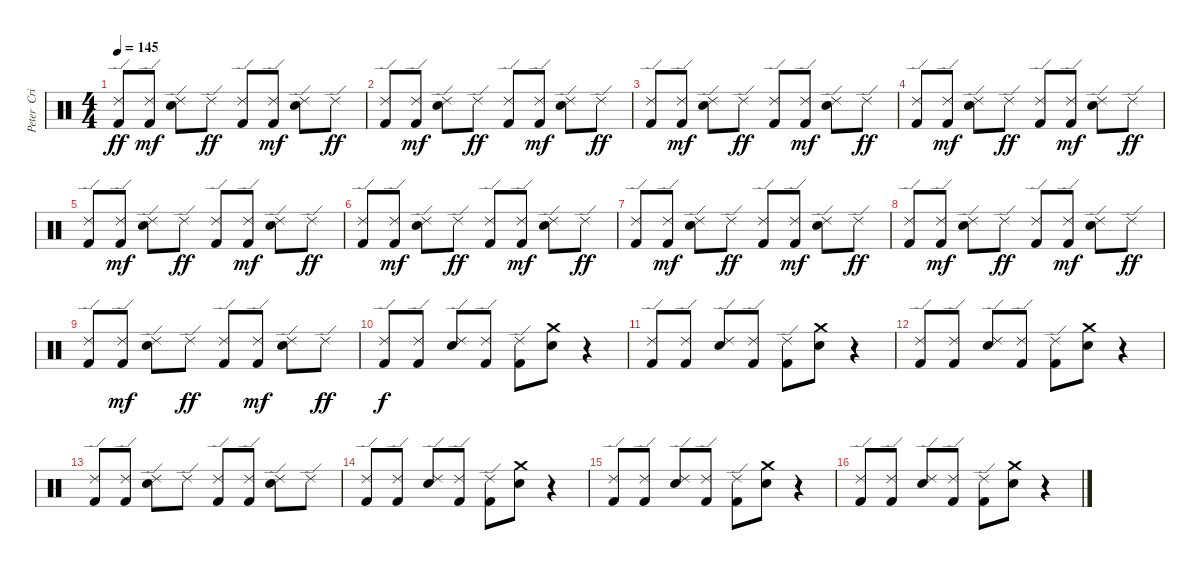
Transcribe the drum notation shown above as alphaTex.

\track ("Peter  Criss [Drums]" "Peter  Cri") {instrument percussion}
\staff {score}
\articulation defaults
\ts (4 4)
\tempo 145
\clef neutral
\ks c
("Ride (edge) 2" "Kick (hit) 2").8{dy ff} ("Ride (edge) 2" "Kick (hit) 2").8{dy mf} ("Ride (edge) 2" "Electric Snare (hit)").8 "Ride (edge) 2".8{dy ff} ("Ride (edge) 2" "Kick (hit) 2").8 ("Ride (edge) 2" "Kick (hit) 2").8{dy mf} ("Ride (edge) 2" "Electric Snare (hit)").8 "Ride (edge) 2".8{dy ff} |
("Ride (edge) 2" "Kick (hit) 2").8 ("Ride (edge) 2" "Kick (hit) 2").8{dy mf} ("Ride (edge) 2" "Electric Snare (hit)").8 "Ride (edge) 2".8{dy ff} ("Ride (edge) 2" "Kick (hit) 2").8 ("Ride (edge) 2" "Kick (hit) 2").8{dy mf} ("Ride (edge) 2" "Electric Snare (hit)").8 "Ride (edge) 2".8{dy ff} |
("Ride (edge) 2" "Kick (hit) 2").8 ("Ride (edge) 2" "Kick (hit) 2").8{dy mf} ("Ride (edge) 2" "Electric Snare (hit)").8 "Ride (edge) 2".8{dy ff} ("Ride (edge) 2" "Kick (hit) 2").8 ("Ride (edge) 2" "Kick (hit) 2").8{dy mf} ("Ride (edge) 2" "Electric Snare (hit)").8 "Ride (edge) 2".8{dy ff} |
("Ride (edge) 2" "Kick (hit) 2").8 ("Ride (edge) 2" "Kick (hit) 2").8{dy mf} ("Ride (edge) 2" "Electric Snare (hit)").8 "Ride (edge) 2".8{dy ff} ("Ride (edge) 2" "Kick (hit) 2").8 ("Ride (edge) 2" "Kick (hit) 2").8{dy mf} ("Ride (edge) 2" "Electric Snare (hit)").8 "Ride (edge) 2".8{dy ff} |
("Ride (edge) 2" "Kick (hit) 2").8 ("Ride (edge) 2" "Kick (hit) 2").8{dy mf} ("Ride (edge) 2" "Electric Snare (hit)").8 "Ride (edge) 2".8{dy ff} ("Ride (edge) 2" "Kick (hit) 2").8 ("Ride (edge) 2" "Kick (hit) 2").8{dy mf} ("Ride (edge) 2" "Electric Snare (hit)").8 "Ride (edge) 2".8{dy ff} |
("Ride (edge) 2" "Kick (hit) 2").8 ("Ride (edge) 2" "Kick (hit) 2").8{dy mf} ("Ride (edge) 2" "Electric Snare (hit)").8 "Ride (edge) 2".8{dy ff} ("Ride (edge) 2" "Kick (hit) 2").8 ("Ride (edge) 2" "Kick (hit) 2").8{dy mf} ("Ride (edge) 2" "Electric Snare (hit)").8 "Ride (edge) 2".8{dy ff} |
("Ride (edge) 2" "Kick (hit) 2").8 ("Ride (edge) 2" "Kick (hit) 2").8{dy mf} ("Ride (edge) 2" "Electric Snare (hit)").8 "Ride (edge) 2".8{dy ff} ("Ride (edge) 2" "Kick (hit) 2").8 ("Ride (edge) 2" "Kick (hit) 2").8{dy mf} ("Ride (edge) 2" "Electric Snare (hit)").8 "Ride (edge) 2".8{dy ff} |
("Ride (edge) 2" "Kick (hit) 2").8 ("Ride (edge) 2" "Kick (hit) 2").8{dy mf} ("Ride (edge) 2" "Electric Snare (hit)").8 "Ride (edge) 2".8{dy ff} ("Ride (edge) 2" "Kick (hit) 2").8 ("Ride (edge) 2" "Kick (hit) 2").8{dy mf} ("Ride (edge) 2" "Electric Snare (hit)").8 "Ride (edge) 2".8{dy ff} |
("Ride (edge) 2" "Kick (hit) 2").8 ("Ride (edge) 2" "Kick (hit) 2").8{dy mf} ("Ride (edge) 2" "Electric Snare (hit)").8 "Ride (edge) 2".8{dy ff} ("Ride (edge) 2" "Kick (hit) 2").8 ("Ride (edge) 2" "Kick (hit) 2").8{dy mf} ("Ride (edge) 2" "Electric Snare (hit)").8 "Ride (edge) 2".8{dy ff} |
("Ride (edge) 2" "Kick (hit) 2").8{dy f} ("Ride (edge) 2" "Kick (hit) 2").8 ("Ride (edge) 2" "Electric Snare (hit)").8 ("Ride (edge) 2" "Kick (hit) 2").8 ("Ride (edge) 2" "Kick (hit) 2").8 ("Crash medium (hit)" "Electric Snare (hit)").8 r.4 |
("Ride (edge) 2" "Kick (hit) 2").8 ("Ride (edge) 2" "Kick (hit) 2").8 ("Ride (edge) 2" "Electric Snare (hit)").8 ("Ride (edge) 2" "Kick (hit) 2").8 ("Ride (edge) 2" "Kick (hit) 2").8 ("Crash medium (hit)" "Electric Snare (hit)").8 r.4 |
("Ride (edge) 2" "Kick (hit) 2").8 ("Ride (edge) 2" "Kick (hit) 2").8 ("Ride (edge) 2" "Electric Snare (hit)").8 ("Ride (edge) 2" "Kick (hit) 2").8 ("Ride (edge) 2" "Kick (hit) 2").8 ("Crash medium (hit)" "Electric Snare (hit)").8 r.4 |
("Ride (edge) 2" "Kick (hit) 2").8 ("Ride (edge) 2" "Kick (hit) 2").8 ("Ride (edge) 2" "Electric Snare (hit)").8 "Ride (edge) 2".8 ("Ride (edge) 2" "Kick (hit) 2").8 ("Ride (edge) 2" "Kick (hit) 2").8 ("Ride (edge) 2" "Electric Snare (hit)").8 "Ride (edge) 2".8 |
("Ride (edge) 2" "Kick (hit) 2").8 ("Ride (edge) 2" "Kick (hit) 2").8 ("Ride (edge) 2" "Electric Snare (hit)").8 ("Ride (edge) 2" "Kick (hit) 2").8 ("Ride (edge) 2" "Kick (hit) 2").8 ("Crash medium (hit)" "Electric Snare (hit)").8 r.4 |
("Ride (edge) 2" "Kick (hit) 2").8 ("Ride (edge) 2" "Kick (hit) 2").8 ("Ride (edge) 2" "Electric Snare (hit)").8 ("Ride (edge) 2" "Kick (hit) 2").8 ("Ride (edge) 2" "Kick (hit) 2").8 ("Crash medium (hit)" "Electric Snare (hit)").8 r.4 |
("Ride (edge) 2" "Kick (hit) 2").8 ("Ride (edge) 2" "Kick (hit) 2").8 ("Ride (edge) 2" "Electric Snare (hit)").8 ("Ride (edge) 2" "Kick (hit) 2").8 ("Ride (edge) 2" "Kick (hit) 2").8 ("Crash medium (hit)" "Electric Snare (hit)").8 r.4
